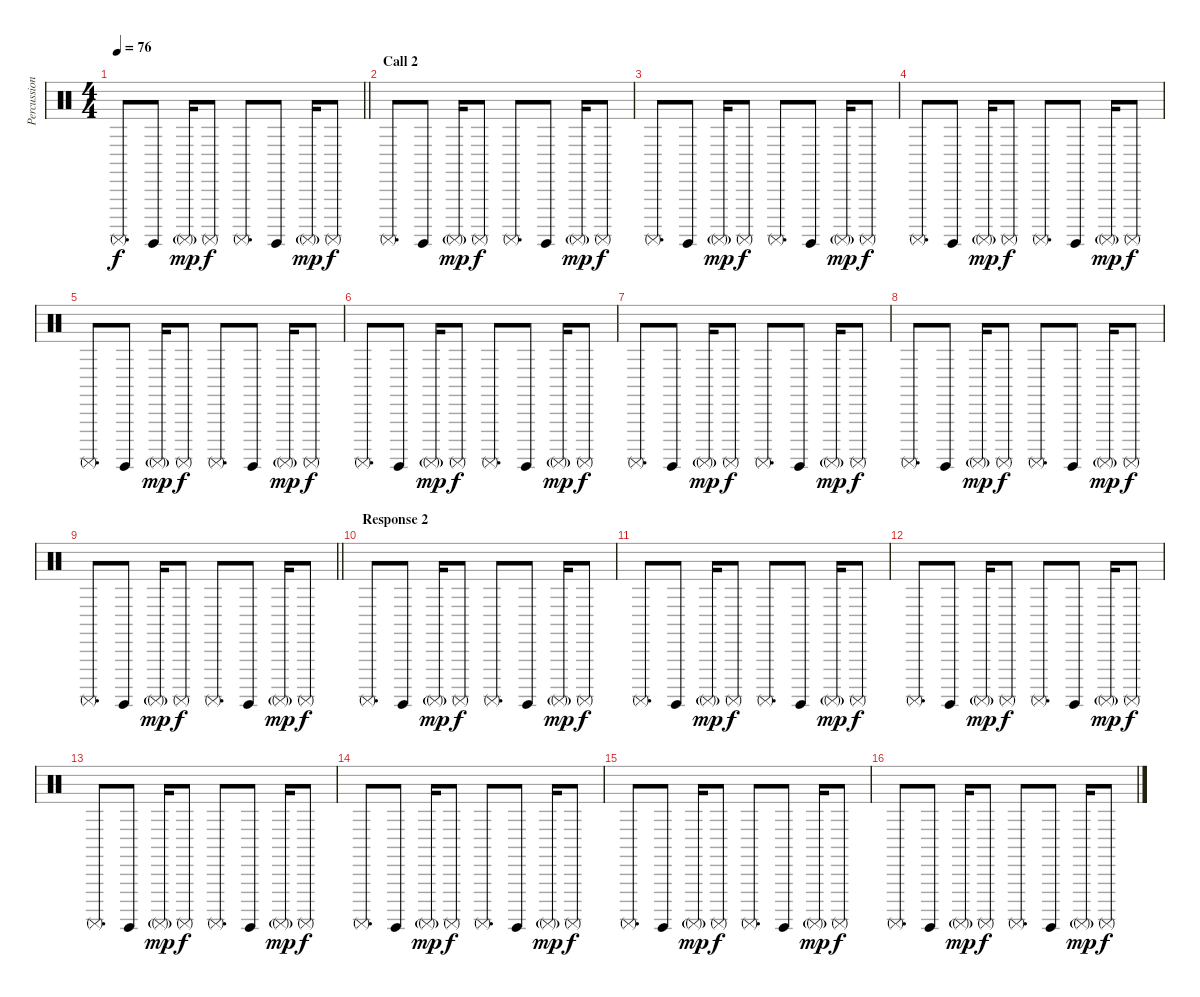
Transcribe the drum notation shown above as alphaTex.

\track ("Percussion" "Percussion") {instrument percussion}
\staff {score}
\articulation defaults
\ts (4 4)
\tempo 76
\clef neutral
\barLineRight lightlight
\ks c "Surdo (mute)".8{d dy f} "Surdo (hit)".8 "Surdo (mute)"{g}.16{dy mp} "Surdo (mute)".8{dy f} "Surdo (mute)".8{d} "Surdo (hit)".8 "Surdo (mute)"{g}.16{dy mp} "Surdo (mute)".8{dy f}
|
\section ("" "Call 2")
"Surdo (mute)".8{d volume 8} "Surdo (hit)".8 "Surdo (mute)"{g}.16{dy mp} "Surdo (mute)".8{dy f} "Surdo (mute)".8{d} "Surdo (hit)".8 "Surdo (mute)"{g}.16{dy mp} "Surdo (mute)".8{dy f} |
"Surdo (mute)".8{d} "Surdo (hit)".8 "Surdo (mute)"{g}.16{dy mp} "Surdo (mute)".8{dy f} "Surdo (mute)".8{d} "Surdo (hit)".8 "Surdo (mute)"{g}.16{dy mp} "Surdo (mute)".8{dy f} |
"Surdo (mute)".8{d} "Surdo (hit)".8 "Surdo (mute)"{g}.16{dy mp} "Surdo (mute)".8{dy f} "Surdo (mute)".8{d} "Surdo (hit)".8 "Surdo (mute)"{g}.16{dy mp} "Surdo (mute)".8{dy f} |
"Surdo (mute)".8{d} "Surdo (hit)".8 "Surdo (mute)"{g}.16{dy mp} "Surdo (mute)".8{dy f} "Surdo (mute)".8{d} "Surdo (hit)".8 "Surdo (mute)"{g}.16{dy mp} "Surdo (mute)".8{dy f} |
"Surdo (mute)".8{d} "Surdo (hit)".8 "Surdo (mute)"{g}.16{dy mp} "Surdo (mute)".8{dy f} "Surdo (mute)".8{d} "Surdo (hit)".8 "Surdo (mute)"{g}.16{dy mp} "Surdo (mute)".8{dy f} |
"Surdo (mute)".8{d} "Surdo (hit)".8 "Surdo (mute)"{g}.16{dy mp} "Surdo (mute)".8{dy f} "Surdo (mute)".8{d} "Surdo (hit)".8 "Surdo (mute)"{g}.16{dy mp} "Surdo (mute)".8{dy f} |
"Surdo (mute)".8{d} "Surdo (hit)".8 "Surdo (mute)"{g}.16{dy mp} "Surdo (mute)".8{dy f} "Surdo (mute)".8{d} "Surdo (hit)".8 "Surdo (mute)"{g}.16{dy mp} "Surdo (mute)".8{dy f} |
\barLineRight lightlight "Surdo (mute)".8{d} "Surdo (hit)".8 "Surdo (mute)"{g}.16{dy mp} "Surdo (mute)".8{dy f} "Surdo (mute)".8{d} "Surdo (hit)".8 "Surdo (mute)"{g}.16{dy mp} "Surdo (mute)".8{dy f}
|
\section ("" "Response 2")
"Surdo (mute)".8{d volume 8} "Surdo (hit)".8 "Surdo (mute)"{g}.16{dy mp} "Surdo (mute)".8{dy f} "Surdo (mute)".8{d} "Surdo (hit)".8 "Surdo (mute)"{g}.16{dy mp} "Surdo (mute)".8{dy f} |
"Surdo (mute)".8{d} "Surdo (hit)".8 "Surdo (mute)"{g}.16{dy mp} "Surdo (mute)".8{dy f} "Surdo (mute)".8{d} "Surdo (hit)".8 "Surdo (mute)"{g}.16{dy mp} "Surdo (mute)".8{dy f} |
"Surdo (mute)".8{d} "Surdo (hit)".8 "Surdo (mute)"{g}.16{dy mp} "Surdo (mute)".8{dy f} "Surdo (mute)".8{d} "Surdo (hit)".8 "Surdo (mute)"{g}.16{dy mp} "Surdo (mute)".8{dy f} |
"Surdo (mute)".8{d} "Surdo (hit)".8 "Surdo (mute)"{g}.16{dy mp} "Surdo (mute)".8{dy f} "Surdo (mute)".8{d} "Surdo (hit)".8 "Surdo (mute)"{g}.16{dy mp} "Surdo (mute)".8{dy f} |
"Surdo (mute)".8{d} "Surdo (hit)".8 "Surdo (mute)"{g}.16{dy mp} "Surdo (mute)".8{dy f} "Surdo (mute)".8{d} "Surdo (hit)".8 "Surdo (mute)"{g}.16{dy mp} "Surdo (mute)".8{dy f} |
"Surdo (mute)".8{d} "Surdo (hit)".8 "Surdo (mute)"{g}.16{dy mp} "Surdo (mute)".8{dy f} "Surdo (mute)".8{d} "Surdo (hit)".8 "Surdo (mute)"{g}.16{dy mp} "Surdo (mute)".8{dy f} |
"Surdo (mute)".8{d} "Surdo (hit)".8 "Surdo (mute)"{g}.16{dy mp} "Surdo (mute)".8{dy f} "Surdo (mute)".8{d} "Surdo (hit)".8 "Surdo (mute)"{g}.16{dy mp} "Surdo (mute)".8{dy f}
